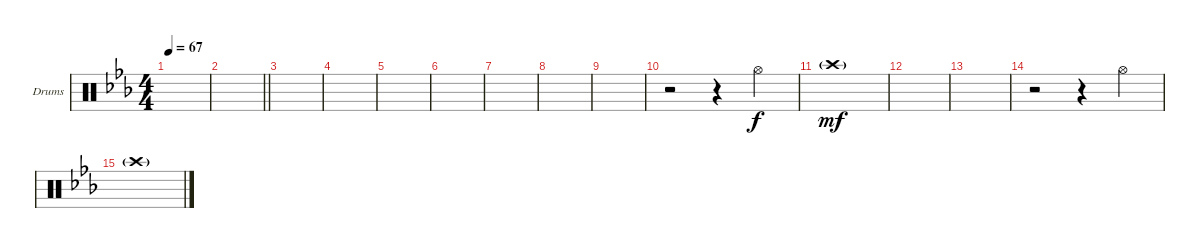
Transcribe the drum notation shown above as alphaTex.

\defaultSystemsLayout 4
\bracketExtendMode groupsimilarinstruments
\firstSystemTrackNameOrientation horizontal
\otherSystemsTrackNameOrientation horizontal
\track ("Drumkit" "Drums") {instrument percussion}
\staff {score}
\articulation defaults
\ts (4 4)
\tempo 67
\clef neutral
\scale
0.525
\ks cminor
|
\scale
0.2375
\barLineRight lightlight
|
\scale
0.2375 |
\scale
0.333333 |
\scale
0.333333 |
\scale
0.333333 |
\scale
0.333333 |
\scale
0.333333 |
\scale
0.333333 |
\scale
0.333333 r.2 r.4 "Hi-Hat (open)".4 |
\scale
0.333333 "Crash high (hit)"{g}.1{dy mf} |
\scale
0.333333 |
\scale
0.333333 |
\scale
0.333333 r.2 r.4 "Hi-Hat (open)".4 |
\scale
0.333333 "Crash high (hit)"{g}.1 |
\scale
0.333333
